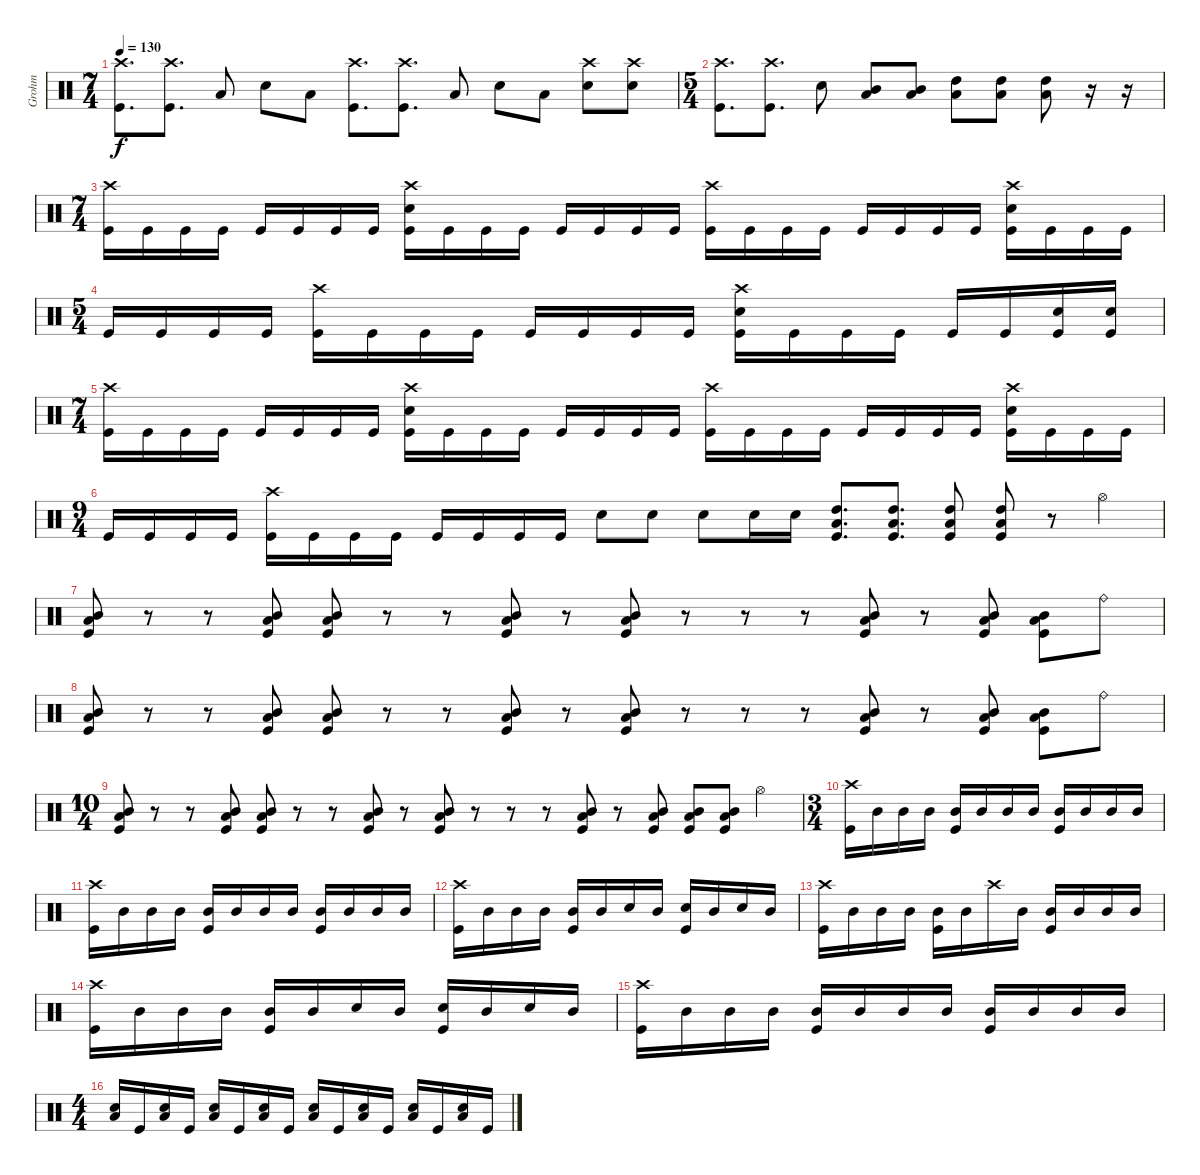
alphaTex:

\track ("Grohm" "Grohm") {instrument percussion}
\staff {score}
\articulation defaults
\ts (7 4)
\tempo 130
\clef neutral
\ks c
("Crash high (hit)" "Kick (hit)").8{d dy f} ("Crash high (hit)" "Kick (hit)").8{d} "Low Tom (hit)".8 "Snare (hit) 2".8 "Low Tom (hit)".8 ("Crash high (hit)" "Kick (hit)").8{d} ("Crash high (hit)" "Kick (hit)").8{d} "Low Tom (hit)".8 "Snare (hit) 2".8 "Low Tom (hit)".8 ("Crash high (hit)" "Snare (hit) 2").8 ("Crash high (hit)" "Snare (hit) 2").8 |
\ts (5 4)
("Crash high (hit)" "Kick (hit)").8{d} ("Crash high (hit)" "Kick (hit)").8{d} "Snare (hit) 2".8 ("Mid Tom (hit)" "Low Tom (hit)").8 ("Mid Tom (hit)" "Low Tom (hit)").8 ("High Tom (hit)" "Low Tom (hit)").8 ("High Tom (hit)" "Low Tom (hit)").8 ("High Tom (hit)" "Low Tom (hit)").8 r.16 r.16 |
\ts (7 4)
("Crash high (hit)" "Kick (hit)").16 "Kick (hit)".16 "Kick (hit)".16 "Kick (hit)".16 "Kick (hit)".16 "Kick (hit)".16 "Kick (hit)".16 "Kick (hit)".16 ("Crash high (hit)" "Snare (hit) 2" "Kick (hit)").16 "Kick (hit)".16 "Kick (hit)".16 "Kick (hit)".16 "Kick (hit)".16 "Kick (hit)".16 "Kick (hit)".16 "Kick (hit)".16 ("Crash high (hit)" "Kick (hit)").16 "Kick (hit)".16 "Kick (hit)".16 "Kick (hit)".16 "Kick (hit)".16 "Kick (hit)".16 "Kick (hit)".16 "Kick (hit)".16 ("Crash high (hit)" "Snare (hit) 2" "Kick (hit)").16 "Kick (hit)".16 "Kick (hit)".16 "Kick (hit)".16 |
\ts (5 4)
"Kick (hit)".16 "Kick (hit)".16 "Kick (hit)".16 "Kick (hit)".16 ("Crash high (hit)" "Kick (hit)").16 "Kick (hit)".16 "Kick (hit)".16 "Kick (hit)".16 "Kick (hit)".16 "Kick (hit)".16 "Kick (hit)".16 "Kick (hit)".16 ("Crash high (hit)" "Snare (hit) 2" "Kick (hit)").16 "Kick (hit)".16 "Kick (hit)".16 "Kick (hit)".16 "Kick (hit)".16 "Kick (hit)".16 ("Snare (hit) 2" "Kick (hit)").16 ("Snare (hit) 2" "Kick (hit)").16 |
\ts (7 4)
("Crash high (hit)" "Kick (hit)").16 "Kick (hit)".16 "Kick (hit)".16 "Kick (hit)".16 "Kick (hit)".16 "Kick (hit)".16 "Kick (hit)".16 "Kick (hit)".16 ("Crash high (hit)" "Snare (hit) 2" "Kick (hit)").16 "Kick (hit)".16 "Kick (hit)".16 "Kick (hit)".16 "Kick (hit)".16 "Kick (hit)".16 "Kick (hit)".16 "Kick (hit)".16 ("Crash high (hit)" "Kick (hit)").16 "Kick (hit)".16 "Kick (hit)".16 "Kick (hit)".16 "Kick (hit)".16 "Kick (hit)".16 "Kick (hit)".16 "Kick (hit)".16 ("Crash high (hit)" "Snare (hit) 2" "Kick (hit)").16 "Kick (hit)".16 "Kick (hit)".16 "Kick (hit)".16 |
\ts (9 4)
"Kick (hit)".16 "Kick (hit)".16 "Kick (hit)".16 "Kick (hit)".16 ("Crash high (hit)" "Kick (hit)").16 "Kick (hit)".16 "Kick (hit)".16 "Kick (hit)".16 "Kick (hit)".16 "Kick (hit)".16 "Kick (hit)".16 "Kick (hit)".16 "Snare (hit) 2".8 "Snare (hit) 2".8 "Snare (hit) 2".8 "Snare (hit) 2".16 "Snare (hit) 2".16 ("High Tom (hit)" "Low Tom (hit)" "Kick (hit)").8{d} ("High Tom (hit)" "Low Tom (hit)" "Kick (hit)").8{d} ("High Tom (hit)" "Low Tom (hit)" "Kick (hit)").8 ("High Tom (hit)" "Low Tom (hit)" "Kick (hit)").8 r.8 "Hi-Hat (open)".4 |
("Mid Tom (hit)" "Low Tom (hit)" "Kick (hit)").8 r.8 r.8 ("Mid Tom (hit)" "Low Tom (hit)" "Kick (hit)").8 ("Mid Tom (hit)" "Low Tom (hit)" "Kick (hit)").8 r.8 r.8 ("Mid Tom (hit)" "Low Tom (hit)" "Kick (hit)").8 r.8 ("Mid Tom (hit)" "Low Tom (hit)" "Kick (hit)").8 r.8 r.8 r.8 ("Mid Tom (hit)" "Low Tom (hit)" "Kick (hit)").8 r.8 ("Mid Tom (hit)" "Low Tom (hit)" "Kick (hit)").8 ("Mid Tom (hit)" "Low Tom (hit)" "Kick (hit)").8 "Ride (bell)".8 |
("Mid Tom (hit)" "Low Tom (hit)" "Kick (hit)").8 r.8 r.8 ("Mid Tom (hit)" "Low Tom (hit)" "Kick (hit)").8 ("Mid Tom (hit)" "Low Tom (hit)" "Kick (hit)").8 r.8 r.8 ("Mid Tom (hit)" "Low Tom (hit)" "Kick (hit)").8 r.8 ("Mid Tom (hit)" "Low Tom (hit)" "Kick (hit)").8 r.8 r.8 r.8 ("Mid Tom (hit)" "Low Tom (hit)" "Kick (hit)").8 r.8 ("Mid Tom (hit)" "Low Tom (hit)" "Kick (hit)").8 ("Mid Tom (hit)" "Low Tom (hit)" "Kick (hit)").8 "Ride (bell)".8 |
\ts (10 4)
("Mid Tom (hit)" "Low Tom (hit)" "Kick (hit)").8 r.8 r.8 ("Mid Tom (hit)" "Low Tom (hit)" "Kick (hit)").8 ("Mid Tom (hit)" "Low Tom (hit)" "Kick (hit)").8 r.8 r.8 ("Mid Tom (hit)" "Low Tom (hit)" "Kick (hit)").8 r.8 ("Mid Tom (hit)" "Low Tom (hit)" "Kick (hit)").8 r.8 r.8 r.8 ("Mid Tom (hit)" "Low Tom (hit)" "Kick (hit)").8 r.8 ("Mid Tom (hit)" "Low Tom (hit)" "Kick (hit)").8 ("Mid Tom (hit)" "Low Tom (hit)" "Kick (hit)").8 ("Mid Tom (hit)" "Low Tom (hit)" "Kick (hit)").8 "Hi-Hat (open)".4 |
\ts (3 4)
("Crash high (hit)" "Kick (hit)").16 "Mid Tom (hit)".16 "Mid Tom (hit)".16 "Mid Tom (hit)".16 ("Mid Tom (hit)" "Kick (hit)").16 "Mid Tom (hit)".16 "Mid Tom (hit)".16 "Mid Tom (hit)".16 ("Mid Tom (hit)" "Kick (hit)").16 "Mid Tom (hit)".16 "Mid Tom (hit)".16 "Mid Tom (hit)".16 |
("Crash high (hit)" "Kick (hit)").16 "Mid Tom (hit)".16 "Mid Tom (hit)".16 "Mid Tom (hit)".16 ("Mid Tom (hit)" "Kick (hit)").16 "Mid Tom (hit)".16 "Mid Tom (hit)".16 "Mid Tom (hit)".16 ("Mid Tom (hit)" "Kick (hit)").16 "Mid Tom (hit)".16 "Mid Tom (hit)".16 "Mid Tom (hit)".16 |
("Crash high (hit)" "Kick (hit)").16 "Mid Tom (hit)".16 "Mid Tom (hit)".16 "Mid Tom (hit)".16 ("Mid Tom (hit)" "Kick (hit)").16 "Mid Tom (hit)".16 "Snare (hit) 2".16 "Mid Tom (hit)".16 ("Snare (hit) 2" "Kick (hit)").16 "Mid Tom (hit)".16 "Snare (hit) 2".16 "Mid Tom (hit)".16 |
("Crash high (hit)" "Kick (hit)").16 "Mid Tom (hit)".16 "Mid Tom (hit)".16 "Mid Tom (hit)".16 ("Mid Tom (hit)" "Kick (hit)").16 "Mid Tom (hit)".16 "Crash high (hit)".16 "Mid Tom (hit)".16 ("Mid Tom (hit)" "Kick (hit)").16 "Mid Tom (hit)".16 "Mid Tom (hit)".16 "Mid Tom (hit)".16 |
("Crash high (hit)" "Kick (hit)").16 "Mid Tom (hit)".16 "Mid Tom (hit)".16 "Mid Tom (hit)".16 ("Mid Tom (hit)" "Kick (hit)").16 "Mid Tom (hit)".16 "Snare (hit) 2".16 "Mid Tom (hit)".16 ("Snare (hit) 2" "Kick (hit)").16 "Mid Tom (hit)".16 "Snare (hit) 2".16 "Mid Tom (hit)".16 |
("Crash high (hit)" "Kick (hit)").16 "Mid Tom (hit)".16 "Mid Tom (hit)".16 "Mid Tom (hit)".16 ("Mid Tom (hit)" "Kick (hit)").16 "Mid Tom (hit)".16 "Mid Tom (hit)".16 "Mid Tom (hit)".16 ("Mid Tom (hit)" "Kick (hit)").16 "Mid Tom (hit)".16 "Mid Tom (hit)".16 "Mid Tom (hit)".16 |
\ts (4 4)
("Snare (hit) 2" "Low Tom (hit)").16 "Kick (hit)".16 ("Snare (hit) 2" "Low Tom (hit)").16 "Kick (hit)".16 ("Snare (hit) 2" "Low Tom (hit)").16 "Kick (hit)".16 ("Snare (hit) 2" "Low Tom (hit)").16 "Kick (hit)".16 ("Snare (hit) 2" "Low Tom (hit)").16 "Kick (hit)".16 ("Snare (hit) 2" "Low Tom (hit)").16 "Kick (hit)".16 ("Snare (hit) 2" "Low Tom (hit)").16 "Kick (hit)".16 ("Snare (hit) 2" "Low Tom (hit)").16 "Kick (hit)".16
